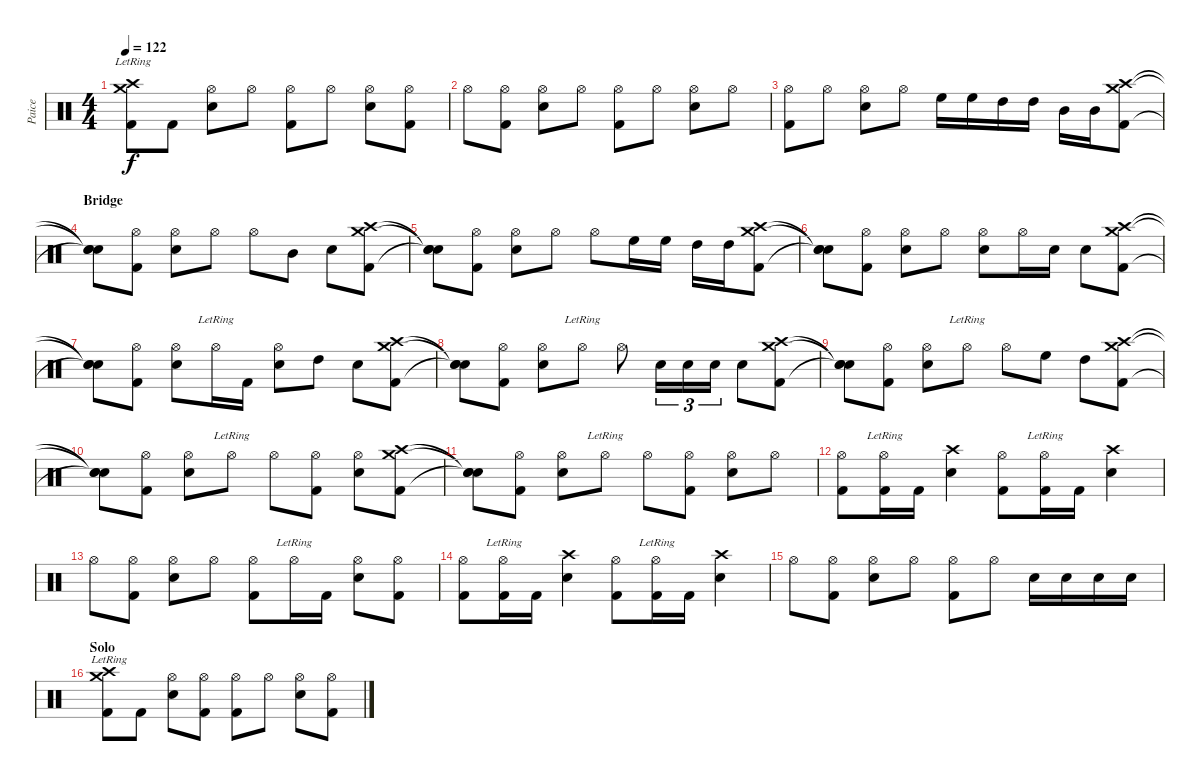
\track ("Paice" "Paice") {instrument percussion}
\staff {score}
\articulation defaults
\ts (4 4)
\tempo 122
\clef neutral
\ks c
("Crash high (hit)"{lr} "Crash medium (hit)"{lr} "Kick (hit) 2").8{dy f} "Kick (hit) 2".8 ("Hi-Hat (open)" "Electric Snare (hit)").8 "Hi-Hat (open)".8 ("Hi-Hat (open)" "Kick (hit) 2").8 "Hi-Hat (open)".8 ("Hi-Hat (open)" "Electric Snare (hit)").8 ("Hi-Hat (open)" "Kick (hit) 2").8 |
"Hi-Hat (open)".8 ("Hi-Hat (open)" "Kick (hit) 2").8 ("Hi-Hat (open)" "Electric Snare (hit)").8 "Hi-Hat (open)".8 ("Hi-Hat (open)" "Kick (hit) 2").8 "Hi-Hat (open)".8 ("Hi-Hat (open)" "Electric Snare (hit)").8 "Hi-Hat (open)".8 |
("Hi-Hat (open)" "Kick (hit) 2").8 "Hi-Hat (open)".8 ("Hi-Hat (open)" "Electric Snare (hit)").8 "Hi-Hat (open)".8 "High Floor Tom (hit)".16 "High Floor Tom (hit)".16 "High Tom (hit)".16 "High Tom (hit)".16 "Mid Tom (hit)".16 "Mid Tom (hit)".16 ("Crash high (hit)" "Crash medium (hit)" "Kick (hit) 2").8 |
\section ("" "Bridge")
("Snare (hit)"{t} "Snare (hit)"{t} "Snare (hit)"{t}).8 ("Hi-Hat (open)" "Kick (hit) 2").8 ("Hi-Hat (open)" "Electric Snare (hit)").8 "Hi-Hat (open)".8 "Hi-Hat (open)".8 "Mid Tom (hit)".8 "Electric Snare (hit)".8 ("Crash high (hit)" "Crash medium (hit)" "Kick (hit) 2").8 |
("Snare (hit)"{t} "Snare (hit)"{t} "Snare (hit)"{t}).8 ("Hi-Hat (open)" "Kick (hit) 2").8 ("Hi-Hat (open)" "Electric Snare (hit)").8 "Hi-Hat (open)".8 "Hi-Hat (open)".8 "High Floor Tom (hit)".16 "High Floor Tom (hit)".16 "High Tom (hit)".16 "High Tom (hit)".16 ("Crash high (hit)" "Crash medium (hit)" "Kick (hit) 2").8 |
("Snare (hit)"{t} "Snare (hit)"{t} "Snare (hit)"{t}).8 ("Hi-Hat (open)" "Kick (hit) 2").8 ("Hi-Hat (open)" "Electric Snare (hit)").8 "Hi-Hat (open)".8 ("Hi-Hat (open)" "Electric Snare (hit)").8 "Hi-Hat (open)".16 "Electric Snare (hit)".16 "Electric Snare (hit)".8 ("Crash high (hit)" "Crash medium (hit)" "Kick (hit) 2").8 |
("Snare (hit)"{t} "Snare (hit)"{t} "Snare (hit)"{t}).8 ("Hi-Hat (open)" "Kick (hit) 2").8 ("Hi-Hat (open)" "Electric Snare (hit)").8 "Hi-Hat (open)"{lr}.16 "Kick (hit) 2".16 ("Hi-Hat (open)" "Electric Snare (hit)").8 "High Tom (hit)".8 "Electric Snare (hit)".8 ("Crash high (hit)" "Crash medium (hit)" "Kick (hit) 2").8 |
("Snare (hit)"{t} "Snare (hit)"{t} "Snare (hit)"{t}).8 ("Hi-Hat (open)" "Kick (hit) 2").8 ("Hi-Hat (open)" "Electric Snare (hit)").8 "Hi-Hat (open)"{lr}.8 "Hi-Hat (open)".8 "Electric Snare (hit)".16{tu (3 2)} "Electric Snare (hit)".16{tu (3 2)} "Electric Snare (hit)".16{tu (3 2)} "Electric Snare (hit)".8 ("Crash high (hit)" "Crash medium (hit)" "Kick (hit) 2").8 |
("Snare (hit)"{t} "Snare (hit)"{t} "Snare (hit)"{t}).8 ("Hi-Hat (open)" "Kick (hit) 2").8 ("Hi-Hat (open)" "Electric Snare (hit)").8 "Hi-Hat (open)"{lr}.8 "Hi-Hat (open)".8 "High Floor Tom (hit)".8 "High Tom (hit)".8 ("Crash high (hit)" "Crash medium (hit)" "Kick (hit) 2").8 |
("Snare (hit)"{t} "Snare (hit)"{t} "Snare (hit)"{t}).8 ("Hi-Hat (open)" "Kick (hit) 2").8 ("Hi-Hat (open)" "Electric Snare (hit)").8 "Hi-Hat (open)"{lr}.8 "Hi-Hat (open)".8 ("Hi-Hat (open)" "Kick (hit) 2").8 ("Hi-Hat (open)" "Electric Snare (hit)").8 ("Crash high (hit)" "Crash medium (hit)" "Kick (hit) 2").8 |
("Snare (hit)"{t} "Snare (hit)"{t} "Snare (hit)"{t}).8 ("Hi-Hat (open)" "Kick (hit) 2").8 ("Hi-Hat (open)" "Electric Snare (hit)").8 "Hi-Hat (open)"{lr}.8 "Hi-Hat (open)".8 ("Hi-Hat (open)" "Kick (hit) 2").8 ("Hi-Hat (open)" "Electric Snare (hit)").8 "Hi-Hat (open)".8 |
("Hi-Hat (open)" "Kick (hit) 2").8 ("Hi-Hat (open)"{lr} "Kick (hit) 2").16 "Kick (hit) 2".16 ("Crash high (hit)" "Electric Snare (hit)").4 ("Hi-Hat (open)" "Kick (hit) 2").8 ("Hi-Hat (open)"{lr} "Kick (hit) 2").16 "Kick (hit) 2".16 ("Crash high (hit)" "Electric Snare (hit)").4 |
"Hi-Hat (open)".8 ("Hi-Hat (open)" "Kick (hit) 2").8 ("Hi-Hat (open)" "Electric Snare (hit)").8 "Hi-Hat (open)".8 ("Hi-Hat (open)" "Kick (hit) 2").8 "Hi-Hat (open)"{lr}.16 "Kick (hit) 2".16 ("Hi-Hat (open)" "Electric Snare (hit)").8 ("Hi-Hat (open)" "Kick (hit) 2").8 |
("Hi-Hat (open)" "Kick (hit) 2").8 ("Hi-Hat (open)"{lr} "Kick (hit) 2").16 "Kick (hit) 2".16 ("Crash high (hit)" "Electric Snare (hit)").4 ("Hi-Hat (open)" "Kick (hit) 2").8 ("Hi-Hat (open)"{lr} "Kick (hit) 2").16 "Kick (hit) 2".16 ("Crash high (hit)" "Electric Snare (hit)").4 |
"Hi-Hat (open)".8 ("Hi-Hat (open)" "Kick (hit) 2").8 ("Hi-Hat (open)" "Electric Snare (hit)").8 "Hi-Hat (open)".8 ("Hi-Hat (open)" "Kick (hit) 2").8 "Hi-Hat (open)".8 "Electric Snare (hit)".16 "Electric Snare (hit)".16 "Electric Snare (hit)".16 "Electric Snare (hit)".16 |
\section ("" "Solo")
("Crash high (hit)"{lr} "Crash medium (hit)"{lr} "Kick (hit) 2").8 "Kick (hit) 2".8 ("Hi-Hat (open)" "Electric Snare (hit)").8 ("Hi-Hat (open)" "Kick (hit) 2").8 ("Hi-Hat (open)" "Kick (hit) 2").8 "Hi-Hat (open)".8 ("Hi-Hat (open)" "Electric Snare (hit)").8 ("Hi-Hat (open)" "Kick (hit) 2").8
